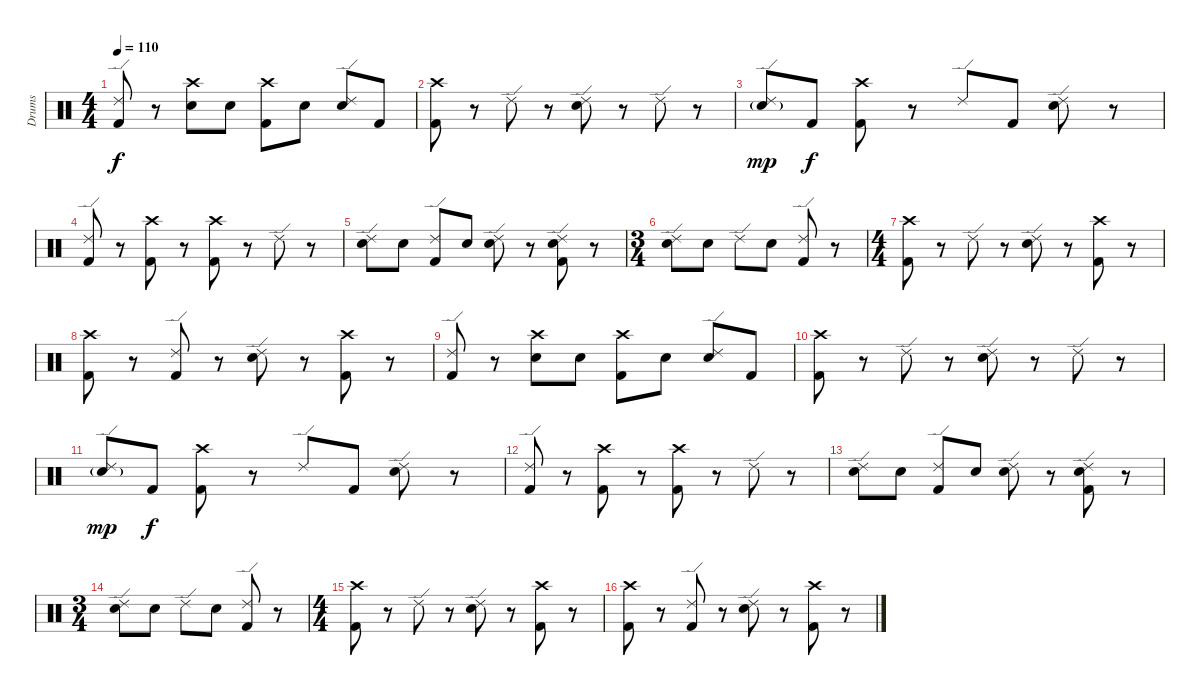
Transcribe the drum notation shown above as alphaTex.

\track ("Drums" "Drums") {instrument percussion}
\staff {score}
\articulation defaults
\ts (4 4)
\tempo 110
\clef neutral
\ks c
("Ride (edge) 2" "Kick (hit) 2").8{dy f} r.8 ("Crash high (hit)" "Snare (hit) 2").8 "Snare (hit) 2".8 ("Crash high (hit)" "Kick (hit) 2").8 "Snare (hit) 2".8 ("Ride (edge) 2" "Snare (hit) 2").8 "Kick (hit) 2".8 |
("Crash high (hit)" "Kick (hit) 2").8 r.8 "Ride (edge) 2".8 r.8 ("Ride (edge) 2" "Snare (hit) 2").8 r.8 "Ride (edge) 2".8 r.8 |
("Ride (edge) 2" "Snare (hit) 2"{g}).8{dy mp} "Kick (hit) 2".8{dy f} ("Crash high (hit)" "Kick (hit) 2").8 r.8 "Ride (edge) 2".8 "Kick (hit) 2".8 ("Ride (edge) 2" "Snare (hit) 2").8 r.8 |
("Ride (edge) 2" "Kick (hit) 2").8 r.8 ("Crash high (hit)" "Kick (hit) 2").8 r.8 ("Crash high (hit)" "Kick (hit) 2").8 r.8 "Ride (edge) 2".8 r.8 |
("Ride (edge) 2" "Snare (hit) 2").8 "Snare (hit) 2".8 ("Ride (edge) 2" "Kick (hit) 2").8 "Snare (hit) 2".8 ("Ride (edge) 2" "Snare (hit) 2").8 r.8 ("Ride (edge) 2" "Snare (hit) 2" "Kick (hit) 2").8 r.8 |
\ts (3 4)
("Ride (edge) 2" "Snare (hit) 2").8 "Snare (hit) 2".8 "Ride (edge) 2".8 "Snare (hit) 2".8 ("Ride (edge) 2" "Kick (hit) 2").8 r.8 |
\ts (4 4)
("Crash high (hit)" "Kick (hit) 2").8 r.8 "Ride (edge) 2".8 r.8 ("Ride (edge) 2" "Snare (hit) 2").8 r.8 ("Crash high (hit)" "Kick (hit) 2").8 r.8 |
("Crash high (hit)" "Kick (hit) 2").8 r.8 ("Ride (edge) 2" "Kick (hit) 2").8 r.8 ("Ride (edge) 2" "Snare (hit) 2").8 r.8 ("Crash high (hit)" "Kick (hit) 2").8 r.8 |
("Ride (edge) 2" "Kick (hit) 2").8 r.8 ("Crash high (hit)" "Snare (hit) 2").8 "Snare (hit) 2".8 ("Crash high (hit)" "Kick (hit) 2").8 "Snare (hit) 2".8 ("Ride (edge) 2" "Snare (hit) 2").8 "Kick (hit) 2".8 |
("Crash high (hit)" "Kick (hit) 2").8 r.8 "Ride (edge) 2".8 r.8 ("Ride (edge) 2" "Snare (hit) 2").8 r.8 "Ride (edge) 2".8 r.8 |
("Ride (edge) 2" "Snare (hit) 2"{g}).8{dy mp} "Kick (hit) 2".8{dy f} ("Crash high (hit)" "Kick (hit) 2").8 r.8 "Ride (edge) 2".8 "Kick (hit) 2".8 ("Ride (edge) 2" "Snare (hit) 2").8 r.8 |
("Ride (edge) 2" "Kick (hit) 2").8 r.8 ("Crash high (hit)" "Kick (hit) 2").8 r.8 ("Crash high (hit)" "Kick (hit) 2").8 r.8 "Ride (edge) 2".8 r.8 |
("Ride (edge) 2" "Snare (hit) 2").8 "Snare (hit) 2".8 ("Ride (edge) 2" "Kick (hit) 2").8 "Snare (hit) 2".8 ("Ride (edge) 2" "Snare (hit) 2").8 r.8 ("Ride (edge) 2" "Snare (hit) 2" "Kick (hit) 2").8 r.8 |
\ts (3 4)
("Ride (edge) 2" "Snare (hit) 2").8 "Snare (hit) 2".8 "Ride (edge) 2".8 "Snare (hit) 2".8 ("Ride (edge) 2" "Kick (hit) 2").8 r.8 |
\ts (4 4)
("Crash high (hit)" "Kick (hit) 2").8 r.8 "Ride (edge) 2".8 r.8 ("Ride (edge) 2" "Snare (hit) 2").8 r.8 ("Crash high (hit)" "Kick (hit) 2").8 r.8 |
("Crash high (hit)" "Kick (hit) 2").8 r.8 ("Ride (edge) 2" "Kick (hit) 2").8 r.8 ("Ride (edge) 2" "Snare (hit) 2").8 r.8 ("Crash high (hit)" "Kick (hit) 2").8 r.8
